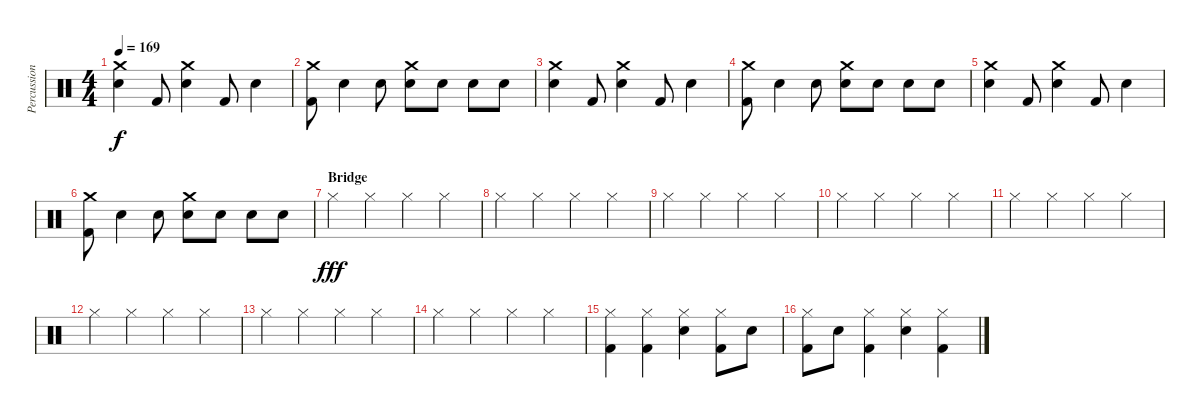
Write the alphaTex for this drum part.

\track ("Percussion" "Percussion") {instrument percussion}
\staff {score}
\articulation defaults
\ts (4 4)
\tempo 169
\clef neutral
\ks c
("Crash medium (hit)" "Snare (hit) 2").4{dy f} "Kick (hit) 2".8 ("Crash medium (hit)" "Snare (hit) 2").4 "Kick (hit) 2".8 "Snare (hit) 2".4 |
("Crash medium (hit)" "Kick (hit) 2").8 "Snare (hit) 2".4 "Snare (hit) 2".8 ("Crash medium (hit)" "Snare (hit) 2").8 "Snare (hit) 2".8 "Snare (hit) 2".8 "Snare (hit) 2".8 |
("Crash medium (hit)" "Snare (hit) 2").4 "Kick (hit) 2".8 ("Crash medium (hit)" "Snare (hit) 2").4 "Kick (hit) 2".8 "Snare (hit) 2".4 |
("Crash medium (hit)" "Kick (hit) 2").8 "Snare (hit) 2".4 "Snare (hit) 2".8 ("Crash medium (hit)" "Snare (hit) 2").8 "Snare (hit) 2".8 "Snare (hit) 2".8 "Snare (hit) 2".8 |
("Crash medium (hit)" "Snare (hit) 2").4 "Kick (hit) 2".8 ("Crash medium (hit)" "Snare (hit) 2").4 "Kick (hit) 2".8 "Snare (hit) 2".4 |
("Crash medium (hit)" "Kick (hit) 2").8 "Snare (hit) 2".4 "Snare (hit) 2".8 ("Crash medium (hit)" "Snare (hit) 2").8 "Snare (hit) 2".8 "Snare (hit) 2".8 "Snare (hit) 2".8 |
\section ("" "Bridge")
"Hi-Hat (closed)".4{dy fff} "Hi-Hat (closed)".4 "Hi-Hat (closed)".4 "Hi-Hat (closed)".4 |
"Hi-Hat (closed)".4 "Hi-Hat (closed)".4 "Hi-Hat (closed)".4 "Hi-Hat (closed)".4 |
"Hi-Hat (closed)".4 "Hi-Hat (closed)".4 "Hi-Hat (closed)".4 "Hi-Hat (closed)".4 |
"Hi-Hat (closed)".4 "Hi-Hat (closed)".4 "Hi-Hat (closed)".4 "Hi-Hat (closed)".4 |
"Hi-Hat (closed)".4 "Hi-Hat (closed)".4 "Hi-Hat (closed)".4 "Hi-Hat (closed)".4 |
"Hi-Hat (closed)".4 "Hi-Hat (closed)".4 "Hi-Hat (closed)".4 "Hi-Hat (closed)".4 |
"Hi-Hat (closed)".4 "Hi-Hat (closed)".4 "Hi-Hat (closed)".4 "Hi-Hat (closed)".4 |
"Hi-Hat (closed)".4 "Hi-Hat (closed)".4 "Hi-Hat (closed)".4 "Hi-Hat (closed)".4 |
("Hi-Hat (closed)" "Kick (hit) 2").4 ("Hi-Hat (closed)" "Kick (hit) 2").4 ("Hi-Hat (closed)" "Electric Snare (hit)").4 ("Hi-Hat (closed)" "Kick (hit) 2").8 "Electric Snare (hit)".8 |
("Hi-Hat (closed)" "Kick (hit) 2").8 "Electric Snare (hit)".8 ("Hi-Hat (closed)" "Kick (hit) 2").4 ("Hi-Hat (closed)" "Electric Snare (hit)").4 ("Hi-Hat (closed)" "Kick (hit) 2").4
